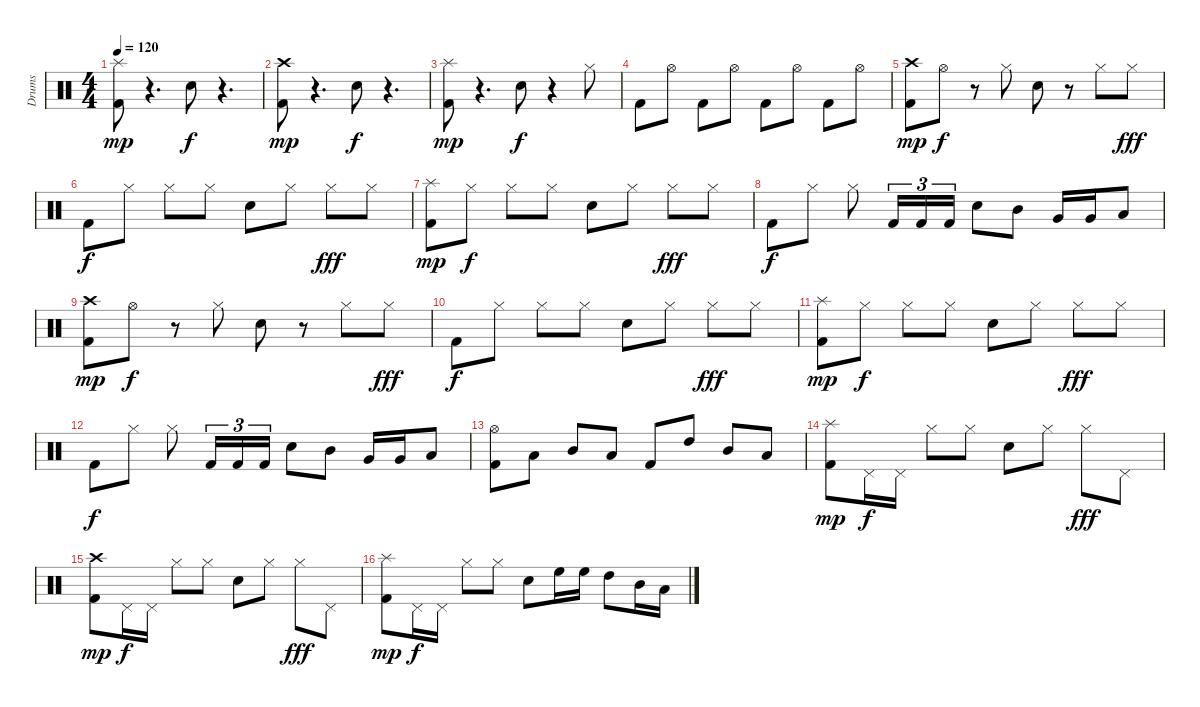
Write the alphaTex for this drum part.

\track ("Drums" "Drums") {instrument percussion}
\staff {score}
\articulation defaults
\ts (4 4)
\tempo 120
\clef neutral
\ks c
("Kick (hit) 2" "Splash (hit)").8{dy mp} r.4{d} "Electric Snare (hit)".8{dy f} r.4{d} |
("Kick (hit) 2" "Crash high (hit)").8{dy mp} r.4{d} "Electric Snare (hit)".8{dy f} r.4{d} |
("Kick (hit) 2" "Splash (hit)").8{dy mp} r.4{d} "Electric Snare (hit)".8{dy f} r.4 "Hi-Hat (closed)".8 |
"Kick (hit) 2".8 "Hi-Hat (open)".8 "Kick (hit) 2".8 "Hi-Hat (open)".8 "Kick (hit) 2".8 "Hi-Hat (open)".8 "Kick (hit) 2".8 "Hi-Hat (open)".8 |
("Kick (hit) 2" "Crash high (hit)").8{dy mp} "Hi-Hat (open)".8{dy f} r.8 "Hi-Hat (closed)".8 "Electric Snare (hit)".8 r.8 "Hi-Hat (closed)".8 "Hi-Hat (closed)".8{dy fff} |
"Kick (hit) 2".8{dy f} "Hi-Hat (closed)".8 "Hi-Hat (closed)".8 "Hi-Hat (closed)".8 "Electric Snare (hit)".8 "Hi-Hat (closed)".8 "Hi-Hat (closed)".8{dy fff} "Hi-Hat (closed)".8 |
("Kick (hit) 2" "Splash (hit)").8{dy mp} "Hi-Hat (closed)".8{dy f} "Hi-Hat (closed)".8 "Hi-Hat (closed)".8 "Electric Snare (hit)".8 "Hi-Hat (closed)".8 "Hi-Hat (closed)".8{dy fff} "Hi-Hat (closed)".8 |
"Kick (hit) 2".8{dy f} "Hi-Hat (closed)".8 "Hi-Hat (closed)".8 "Kick (hit) 2".16{tu (3 2)} "Kick (hit) 2".16{tu (3 2)} "Kick (hit) 2".16{tu (3 2)} "Electric Snare (hit)".8 "Mid Tom (hit)".8 "Very Low Tom (hit)".16 "Very Low Tom (hit)".16 "Low Tom (hit)".8 |
("Kick (hit) 2" "Crash high (hit)").8{dy mp} "Hi-Hat (open)".8{dy f} r.8 "Hi-Hat (closed)".8 "Electric Snare (hit)".8 r.8 "Hi-Hat (closed)".8 "Hi-Hat (closed)".8{dy fff} |
"Kick (hit) 2".8{dy f} "Hi-Hat (closed)".8 "Hi-Hat (closed)".8 "Hi-Hat (closed)".8 "Electric Snare (hit)".8 "Hi-Hat (closed)".8 "Hi-Hat (closed)".8{dy fff} "Hi-Hat (closed)".8 |
("Kick (hit) 2" "Splash (hit)").8{dy mp} "Hi-Hat (closed)".8{dy f} "Hi-Hat (closed)".8 "Hi-Hat (closed)".8 "Electric Snare (hit)".8 "Hi-Hat (closed)".8 "Hi-Hat (closed)".8{dy fff} "Hi-Hat (closed)".8 |
"Kick (hit) 2".8{dy f} "Hi-Hat (closed)".8 "Hi-Hat (closed)".8 "Kick (hit) 2".16{tu (3 2)} "Kick (hit) 2".16{tu (3 2)} "Kick (hit) 2".16{tu (3 2)} "Electric Snare (hit)".8 "Mid Tom (hit)".8 "Very Low Tom (hit)".16 "Very Low Tom (hit)".16 "Low Tom (hit)".8 |
("Hi-Hat (open)" "Kick (hit) 2").8 "Low Tom (hit)".8 "Mid Tom (hit)".8 "Low Tom (hit)".8 "Kick (hit) 2".8 "High Tom (hit)".8 "Mid Tom (hit)".8 "Low Tom (hit)".8 |
("Kick (hit) 2" "Splash (hit)").8{dy mp} "Pedal Hi-Hat (hit)".16{dy f} "Pedal Hi-Hat (hit)".16 "Hi-Hat (closed)".8 "Hi-Hat (closed)".8 "Electric Snare (hit)".8 "Hi-Hat (closed)".8 "Hi-Hat (closed)".8{dy fff} "Pedal Hi-Hat (hit)".8 |
("Kick (hit) 2" "Crash high (hit)").8{dy mp} "Pedal Hi-Hat (hit)".16{dy f} "Pedal Hi-Hat (hit)".16 "Hi-Hat (closed)".8 "Hi-Hat (closed)".8 "Electric Snare (hit)".8 "Hi-Hat (closed)".8 "Hi-Hat (closed)".8{dy fff} "Pedal Hi-Hat (hit)".8 |
("Kick (hit) 2" "Splash (hit)").8{dy mp} "Pedal Hi-Hat (hit)".16{dy f} "Pedal Hi-Hat (hit)".16 "Hi-Hat (closed)".8 "Hi-Hat (closed)".8 "Electric Snare (hit)".8 "High Floor Tom (hit)".16 "High Floor Tom (hit)".16 "High Tom (hit)".8 "Mid Tom (hit)".16 "Low Tom (hit)".16
